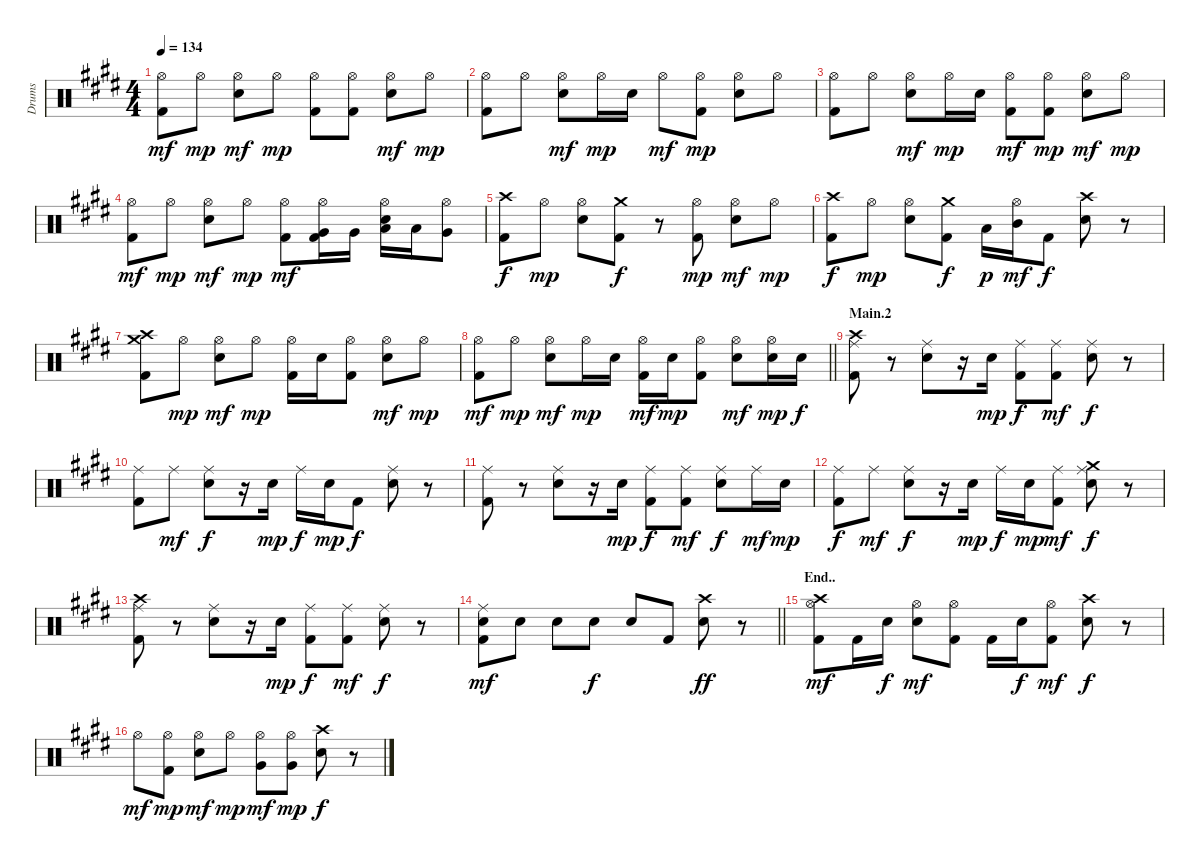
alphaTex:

\track ("Drums" "Drums") {instrument percussion}
\staff {score}
\articulation defaults
\ts (4 4)
\tempo 134
\clef neutral
\ks e
("Hi-Hat (open)" "Kick (hit) 2").8{dy mf} "Hi-Hat (open)".8{dy mp} ("Hi-Hat (open)" "Electric Snare (hit)").8{dy mf} "Hi-Hat (open)".8{dy mp} ("Hi-Hat (open)" "Kick (hit) 2").8 ("Hi-Hat (open)" "Kick (hit) 2").8 ("Hi-Hat (open)" "Electric Snare (hit)").8{dy mf} "Hi-Hat (open)".8{dy mp} |
("Hi-Hat (open)" "Kick (hit) 2").8 "Hi-Hat (open)".8 ("Hi-Hat (open)" "Electric Snare (hit)").8{dy mf} "Hi-Hat (open)".16{dy mp} "Electric Snare (hit)".16 "Hi-Hat (open)".8{dy mf} ("Hi-Hat (open)" "Kick (hit) 2").8{dy mp} ("Hi-Hat (open)" "Electric Snare (hit)").8 "Hi-Hat (open)".8 |
("Hi-Hat (open)" "Kick (hit) 2").8 "Hi-Hat (open)".8 ("Hi-Hat (open)" "Electric Snare (hit)").8{dy mf} "Hi-Hat (open)".16{dy mp} "Electric Snare (hit)".16 ("Hi-Hat (open)" "Kick (hit) 2").8{dy mf} ("Hi-Hat (open)" "Kick (hit) 2").8{dy mp} ("Hi-Hat (open)" "Electric Snare (hit)").8{dy mf} "Hi-Hat (open)".8{dy mp} |
("Hi-Hat (open)" "Kick (hit) 2").8{dy mf} "Hi-Hat (open)".8{dy mp} ("Hi-Hat (open)" "Electric Snare (hit)").8{dy mf} "Hi-Hat (open)".8{dy mp} ("Hi-Hat (open)" "Kick (hit) 2").8{dy mf} ("Hi-Hat (open)" "Very Low Tom (hit)" "Kick (hit) 2").16 "Very Low Tom (hit)".16 ("Hi-Hat (open)" "Low Tom (hit)" "Electric Snare (hit)").16 "Low Tom (hit)".16 ("Hi-Hat (open)" "Very Low Tom (hit)").8 |
("Crash high (hit)" "Kick (hit) 2").8{dy f} "Hi-Hat (open)".8{dy mp} ("Hi-Hat (open)" "Electric Snare (hit)").8 ("Crash medium (hit)" "Kick (hit) 2").8{dy f} r.8 ("Hi-Hat (open)" "Kick (hit) 2").8{dy mp} ("Hi-Hat (open)" "Electric Snare (hit)").8{dy mf} "Hi-Hat (open)".8{dy mp} |
("Crash high (hit)" "Kick (hit) 2").8{dy f} "Hi-Hat (open)".8{dy mp} ("Hi-Hat (open)" "Electric Snare (hit)").8 ("Crash medium (hit)" "Kick (hit) 2").8{dy f} "Low Tom (hit)".16{dy p} ("Hi-Hat (open)" "Mid Tom (hit)").16{dy mf} "Kick (hit) 2".8{dy f} ("Crash high (hit)" "Electric Snare (hit)").8 r.8 |
("Crash medium (hit)" "Crash high (hit)" "Kick (hit) 2").8 "Hi-Hat (open)".8{dy mp} ("Hi-Hat (open)" "Electric Snare (hit)").8{dy mf} "Hi-Hat (open)".8{dy mp} ("Hi-Hat (open)" "Kick (hit) 2").16 "Electric Snare (hit)".16 ("Hi-Hat (open)" "Kick (hit) 2").8 ("Hi-Hat (open)" "Electric Snare (hit)").8{dy mf} "Hi-Hat (open)".8{dy mp} |
\barLineRight lightlight
("Hi-Hat (open)" "Kick (hit) 2").8{dy mf} "Hi-Hat (open)".8{dy mp} ("Hi-Hat (open)" "Electric Snare (hit)").8{dy mf} "Hi-Hat (open)".16{dy mp} "Electric Snare (hit)".16 ("Hi-Hat (open)" "Kick (hit) 2").16{dy mf} "Electric Snare (hit)".16{dy mp} ("Hi-Hat (open)" "Kick (hit) 2").8 ("Hi-Hat (open)" "Electric Snare (hit)").8{dy mf} ("Hi-Hat (open)" "Electric Snare (hit)").16{dy mp} "Electric Snare (hit)".16{dy f} |
\section ("" "Main.2")
("Ride (middle)" "Crash high (hit)" "Kick (hit) 2").8 r.8 ("Ride (middle)" "Electric Snare (hit)").8 r.16 "Electric Snare (hit)".16{dy mp} ("Ride (middle)" "Kick (hit) 2").8{dy f} ("Ride (middle)" "Kick (hit) 2").8{dy mf} ("Ride (middle)" "Electric Snare (hit)").8{dy f} r.8 |
("Ride (middle)" "Kick (hit) 2").8 "Ride (middle)".8{dy mf} ("Ride (middle)" "Electric Snare (hit)").8{dy f} r.16 "Electric Snare (hit)".16{dy mp} "Ride (middle)".16{dy f} "Electric Snare (hit)".16{dy mp} "Kick (hit) 2".8{dy f} ("Ride (middle)" "Electric Snare (hit)").8 r.8 |
("Ride (middle)" "Kick (hit) 2").8 r.8 ("Ride (middle)" "Electric Snare (hit)").8 r.16 "Electric Snare (hit)".16{dy mp} ("Ride (middle)" "Kick (hit) 2").8{dy f} ("Ride (middle)" "Kick (hit) 2").8{dy mf} ("Ride (middle)" "Electric Snare (hit)").8{dy f} "Ride (middle)".16{dy mf} "Electric Snare (hit)".16{dy mp} |
("Ride (middle)" "Kick (hit) 2").8{dy f} "Ride (middle)".8{dy mf} ("Ride (middle)" "Electric Snare (hit)").8{dy f} r.16 "Electric Snare (hit)".16{dy mp} "Ride (middle)".16{dy f} "Electric Snare (hit)".16{dy mp} ("Ride (middle)" "Kick (hit) 2").8{dy mf} ("Ride (middle)" "Crash medium (hit)" "Electric Snare (hit)").8{dy f} r.8 |
("Ride (middle)" "Crash high (hit)" "Kick (hit) 2").8 r.8 ("Ride (middle)" "Electric Snare (hit)").8 r.16 "Electric Snare (hit)".16{dy mp} ("Ride (middle)" "Kick (hit) 2").8{dy f} ("Ride (middle)" "Kick (hit) 2").8{dy mf} ("Ride (middle)" "Electric Snare (hit)").8{dy f} r.8 |
\barLineRight lightlight
("Ride (middle)" "Electric Snare (hit)" "Kick (hit) 2").8{dy mf} "Electric Snare (hit)".8 "Electric Snare (hit)".8 "Electric Snare (hit)".8{dy f} "Electric Snare (hit)".8 "Kick (hit) 2".8 ("Crash high (hit)" "Electric Snare (hit)").8{dy ff} r.8 |
\section ("" "End..")
("Hi-Hat (open)" "Crash high (hit)" "Kick (hit) 2").8{dy mf} "Kick (hit) 2".16 "Electric Snare (hit)".16{dy f} ("Hi-Hat (open)" "Electric Snare (hit)").8{dy mf} ("Hi-Hat (open)" "Kick (hit) 2").8 "Kick (hit) 2".16 "Electric Snare (hit)".16{dy f} ("Hi-Hat (open)" "Kick (hit) 2").8{dy mf} ("Crash high (hit)" "Electric Snare (hit)").8{dy f} r.8 |
"Hi-Hat (open)".8{dy mf} ("Hi-Hat (open)" "Kick (hit) 2").8{dy mp} ("Hi-Hat (open)" "Electric Snare (hit)").8{dy mf} "Hi-Hat (open)".8{dy mp} ("Hi-Hat (open)" "Very Low Tom (hit)").8{dy mf} ("Hi-Hat (open)" "Very Low Tom (hit)").8{dy mp} ("Crash high (hit)" "Electric Snare (hit)").8{dy f} r.8
